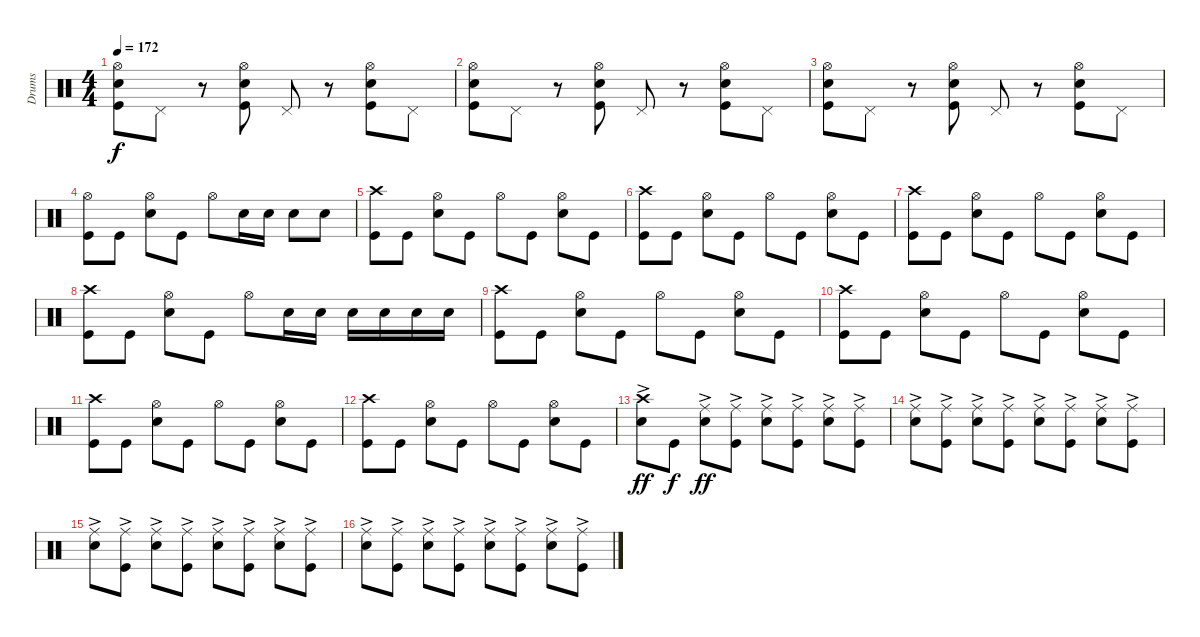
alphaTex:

\track ("Drums" "Drums") {instrument percussion}
\staff {score}
\articulation defaults
\ts (4 4)
\tempo 172
\clef neutral
\ks c
("Hi-Hat (open)" "Snare (hit) 2" "Kick (hit)").8{dy f} "Pedal Hi-Hat (hit)".8 r.8 ("Hi-Hat (open)" "Snare (hit) 2" "Kick (hit)").8 "Pedal Hi-Hat (hit)".8 r.8 ("Hi-Hat (open)" "Snare (hit) 2" "Kick (hit)").8 "Pedal Hi-Hat (hit)".8 |
("Hi-Hat (open)" "Snare (hit) 2" "Kick (hit)").8 "Pedal Hi-Hat (hit)".8 r.8 ("Hi-Hat (open)" "Snare (hit) 2" "Kick (hit)").8 "Pedal Hi-Hat (hit)".8 r.8 ("Hi-Hat (open)" "Snare (hit) 2" "Kick (hit)").8 "Pedal Hi-Hat (hit)".8 |
("Hi-Hat (open)" "Snare (hit) 2" "Kick (hit)").8 "Pedal Hi-Hat (hit)".8 r.8 ("Hi-Hat (open)" "Snare (hit) 2" "Kick (hit)").8 "Pedal Hi-Hat (hit)".8 r.8 ("Hi-Hat (open)" "Snare (hit) 2" "Kick (hit)").8 "Pedal Hi-Hat (hit)".8 |
("Hi-Hat (open)" "Kick (hit)").8 "Kick (hit)".8 ("Hi-Hat (open)" "Snare (hit) 2").8 "Kick (hit)".8 "Hi-Hat (open)".8 "Snare (hit) 2".16 "Snare (hit) 2".16 "Snare (hit) 2".8 "Snare (hit) 2".8 |
("Crash high (hit)" "Kick (hit)").8 "Kick (hit)".8 ("Hi-Hat (open)" "Snare (hit) 2").8 "Kick (hit)".8 "Hi-Hat (open)".8 "Kick (hit)".8 ("Hi-Hat (open)" "Snare (hit) 2").8 "Kick (hit)".8 |
("Crash high (hit)" "Kick (hit)").8 "Kick (hit)".8 ("Hi-Hat (open)" "Snare (hit) 2").8 "Kick (hit)".8 "Hi-Hat (open)".8 "Kick (hit)".8 ("Hi-Hat (open)" "Snare (hit) 2").8 "Kick (hit)".8 |
("Crash high (hit)" "Kick (hit)").8 "Kick (hit)".8 ("Hi-Hat (open)" "Snare (hit) 2").8 "Kick (hit)".8 "Hi-Hat (open)".8 "Kick (hit)".8 ("Hi-Hat (open)" "Snare (hit) 2").8 "Kick (hit)".8 |
("Crash high (hit)" "Kick (hit)").8 "Kick (hit)".8 ("Hi-Hat (open)" "Snare (hit) 2").8 "Kick (hit)".8 "Hi-Hat (open)".8 "Snare (hit) 2".16 "Snare (hit) 2".16 "Snare (hit) 2".16 "Snare (hit) 2".16 "Snare (hit) 2".16 "Snare (hit) 2".16 |
("Crash high (hit)" "Kick (hit)").8 "Kick (hit)".8 ("Hi-Hat (open)" "Snare (hit) 2").8 "Kick (hit)".8 "Hi-Hat (open)".8 "Kick (hit)".8 ("Hi-Hat (open)" "Snare (hit) 2").8 "Kick (hit)".8 |
("Crash high (hit)" "Kick (hit)").8 "Kick (hit)".8 ("Hi-Hat (open)" "Snare (hit) 2").8 "Kick (hit)".8 "Hi-Hat (open)".8 "Kick (hit)".8 ("Hi-Hat (open)" "Snare (hit) 2").8 "Kick (hit)".8 |
("Crash high (hit)" "Kick (hit)").8 "Kick (hit)".8 ("Hi-Hat (open)" "Snare (hit) 2").8 "Kick (hit)".8 "Hi-Hat (open)".8 "Kick (hit)".8 ("Hi-Hat (open)" "Snare (hit) 2").8 "Kick (hit)".8 |
("Crash high (hit)" "Kick (hit)").8 "Kick (hit)".8 ("Hi-Hat (open)" "Snare (hit) 2").8 "Kick (hit)".8 "Hi-Hat (open)".8 "Kick (hit)".8 ("Hi-Hat (open)" "Snare (hit) 2").8 "Kick (hit)".8 |
("Crash high (hit)"{ac} "Snare (hit) 2").8{dy ff} "Kick (hit)".8{dy f} ("Ride (middle)"{ac} "Snare (hit) 2").8{dy ff} ("Ride (middle)"{ac} "Kick (hit)").8 ("Ride (middle)"{ac} "Snare (hit) 2").8 ("Ride (middle)"{ac} "Kick (hit)").8 ("Ride (middle)"{ac} "Snare (hit) 2").8 ("Ride (middle)"{ac} "Kick (hit)").8 |
("Ride (middle)"{ac} "Snare (hit) 2").8 ("Ride (middle)"{ac} "Kick (hit)").8 ("Ride (middle)"{ac} "Snare (hit) 2").8 ("Ride (middle)"{ac} "Kick (hit)").8 ("Ride (middle)"{ac} "Snare (hit) 2").8 ("Ride (middle)"{ac} "Kick (hit)").8 ("Ride (middle)"{ac} "Snare (hit) 2").8 ("Ride (middle)"{ac} "Kick (hit)").8 |
("Ride (middle)"{ac} "Snare (hit) 2").8 ("Ride (middle)"{ac} "Kick (hit)").8 ("Ride (middle)"{ac} "Snare (hit) 2").8 ("Ride (middle)"{ac} "Kick (hit)").8 ("Ride (middle)"{ac} "Snare (hit) 2").8 ("Ride (middle)"{ac} "Kick (hit)").8 ("Ride (middle)"{ac} "Snare (hit) 2").8 ("Ride (middle)"{ac} "Kick (hit)").8 |
("Ride (middle)"{ac} "Snare (hit) 2").8 ("Ride (middle)"{ac} "Kick (hit)").8 ("Ride (middle)"{ac} "Snare (hit) 2").8 ("Ride (middle)"{ac} "Kick (hit)").8 ("Ride (middle)"{ac} "Snare (hit) 2").8 ("Ride (middle)"{ac} "Kick (hit)").8 ("Ride (middle)"{ac} "Snare (hit) 2").8 ("Ride (middle)"{ac} "Kick (hit)").8
